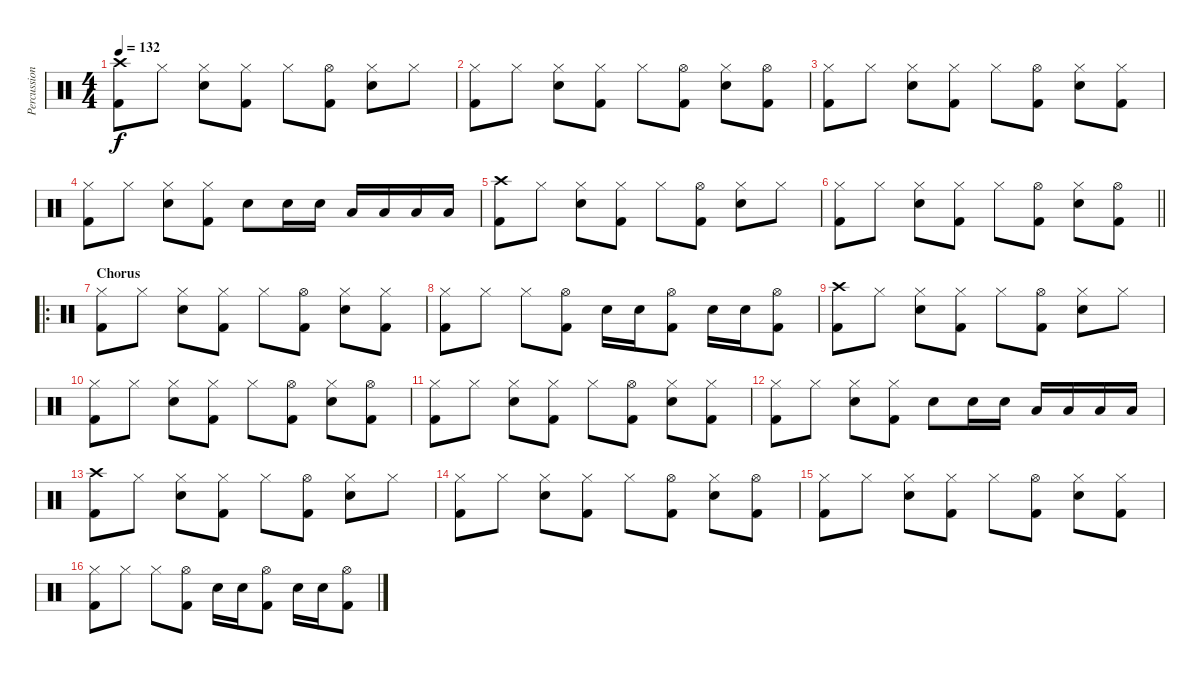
\track ("Percussioni" "Percussion") {instrument percussion}
\staff {score}
\articulation defaults
\ts (4 4)
\tempo 132
\clef neutral
\ks c
("Crash high (hit)" "Kick (hit) 2").8{dy f} "Hi-Hat (closed)".8 ("Hi-Hat (closed)" "Snare (hit) 2").8 ("Hi-Hat (closed)" "Kick (hit) 2").8 "Hi-Hat (closed)".8 ("Hi-Hat (open)" "Kick (hit) 2").8 ("Hi-Hat (closed)" "Snare (hit) 2").8 "Hi-Hat (closed)".8 |
("Hi-Hat (closed)" "Kick (hit) 2").8 "Hi-Hat (closed)".8 ("Hi-Hat (closed)" "Snare (hit) 2").8 ("Hi-Hat (closed)" "Kick (hit) 2").8 "Hi-Hat (closed)".8 ("Hi-Hat (open)" "Kick (hit) 2").8 ("Hi-Hat (closed)" "Snare (hit) 2").8 ("Hi-Hat (open)" "Kick (hit) 2").8 |
("Hi-Hat (closed)" "Kick (hit) 2").8 "Hi-Hat (closed)".8 ("Hi-Hat (closed)" "Snare (hit) 2").8 ("Hi-Hat (closed)" "Kick (hit) 2").8 "Hi-Hat (closed)".8 ("Hi-Hat (open)" "Kick (hit) 2").8 ("Hi-Hat (closed)" "Snare (hit) 2").8 ("Hi-Hat (closed)" "Kick (hit) 2").8 |
("Hi-Hat (closed)" "Kick (hit) 2").8 "Hi-Hat (closed)".8 ("Hi-Hat (closed)" "Snare (hit) 2").8 ("Hi-Hat (closed)" "Kick (hit) 2").8 "Snare (hit) 2".8 "Snare (hit) 2".16 "Snare (hit) 2".16 "Low Floor Tom (hit)".16 "Low Floor Tom (hit)".16 "Low Floor Tom (hit)".16 "Low Floor Tom (hit)".16 |
("Crash high (hit)" "Kick (hit) 2").8 "Hi-Hat (closed)".8 ("Hi-Hat (closed)" "Snare (hit) 2").8 ("Hi-Hat (closed)" "Kick (hit) 2").8 "Hi-Hat (closed)".8 ("Hi-Hat (open)" "Kick (hit) 2").8 ("Hi-Hat (closed)" "Snare (hit) 2").8 "Hi-Hat (closed)".8 |
\barLineRight lightlight
("Hi-Hat (closed)" "Kick (hit) 2").8 "Hi-Hat (closed)".8 ("Hi-Hat (closed)" "Snare (hit) 2").8 ("Hi-Hat (closed)" "Kick (hit) 2").8 "Hi-Hat (closed)".8 ("Hi-Hat (open)" "Kick (hit) 2").8 ("Hi-Hat (closed)" "Snare (hit) 2").8 ("Hi-Hat (open)" "Kick (hit) 2").8 |
\ro
\section ("" "Chorus")
("Hi-Hat (closed)" "Kick (hit) 2").8 "Hi-Hat (closed)".8 ("Hi-Hat (closed)" "Snare (hit) 2").8 ("Hi-Hat (closed)" "Kick (hit) 2").8 "Hi-Hat (closed)".8 ("Hi-Hat (open)" "Kick (hit) 2").8 ("Hi-Hat (closed)" "Snare (hit) 2").8 ("Hi-Hat (closed)" "Kick (hit) 2").8 |
("Hi-Hat (closed)" "Kick (hit) 2").8 "Hi-Hat (closed)".8 "Hi-Hat (closed)".8 ("Hi-Hat (open)" "Kick (hit) 2").8 "Snare (hit) 2".16 "Snare (hit) 2".16 ("Hi-Hat (open)" "Kick (hit) 2").8 "Snare (hit) 2".16 "Snare (hit) 2".16 ("Hi-Hat (open)" "Kick (hit) 2").8 |
("Crash high (hit)" "Kick (hit) 2").8 "Hi-Hat (closed)".8 ("Hi-Hat (closed)" "Snare (hit) 2").8 ("Hi-Hat (closed)" "Kick (hit) 2").8 "Hi-Hat (closed)".8 ("Hi-Hat (open)" "Kick (hit) 2").8 ("Hi-Hat (closed)" "Snare (hit) 2").8 "Hi-Hat (closed)".8 |
("Hi-Hat (closed)" "Kick (hit) 2").8 "Hi-Hat (closed)".8 ("Hi-Hat (closed)" "Snare (hit) 2").8 ("Hi-Hat (closed)" "Kick (hit) 2").8 "Hi-Hat (closed)".8 ("Hi-Hat (open)" "Kick (hit) 2").8 ("Hi-Hat (closed)" "Snare (hit) 2").8 ("Hi-Hat (open)" "Kick (hit) 2").8 |
("Hi-Hat (closed)" "Kick (hit) 2").8 "Hi-Hat (closed)".8 ("Hi-Hat (closed)" "Snare (hit) 2").8 ("Hi-Hat (closed)" "Kick (hit) 2").8 "Hi-Hat (closed)".8 ("Hi-Hat (open)" "Kick (hit) 2").8 ("Hi-Hat (closed)" "Snare (hit) 2").8 ("Hi-Hat (closed)" "Kick (hit) 2").8 |
("Hi-Hat (closed)" "Kick (hit) 2").8 "Hi-Hat (closed)".8 ("Hi-Hat (closed)" "Snare (hit) 2").8 ("Hi-Hat (closed)" "Kick (hit) 2").8 "Snare (hit) 2".8 "Snare (hit) 2".16 "Snare (hit) 2".16 "Low Floor Tom (hit)".16 "Low Floor Tom (hit)".16 "Low Floor Tom (hit)".16 "Low Floor Tom (hit)".16 |
("Crash high (hit)" "Kick (hit) 2").8 "Hi-Hat (closed)".8 ("Hi-Hat (closed)" "Snare (hit) 2").8 ("Hi-Hat (closed)" "Kick (hit) 2").8 "Hi-Hat (closed)".8 ("Hi-Hat (open)" "Kick (hit) 2").8 ("Hi-Hat (closed)" "Snare (hit) 2").8 "Hi-Hat (closed)".8 |
("Hi-Hat (closed)" "Kick (hit) 2").8 "Hi-Hat (closed)".8 ("Hi-Hat (closed)" "Snare (hit) 2").8 ("Hi-Hat (closed)" "Kick (hit) 2").8 "Hi-Hat (closed)".8 ("Hi-Hat (open)" "Kick (hit) 2").8 ("Hi-Hat (closed)" "Snare (hit) 2").8 ("Hi-Hat (open)" "Kick (hit) 2").8 |
("Hi-Hat (closed)" "Kick (hit) 2").8 "Hi-Hat (closed)".8 ("Hi-Hat (closed)" "Snare (hit) 2").8 ("Hi-Hat (closed)" "Kick (hit) 2").8 "Hi-Hat (closed)".8 ("Hi-Hat (open)" "Kick (hit) 2").8 ("Hi-Hat (closed)" "Snare (hit) 2").8 ("Hi-Hat (closed)" "Kick (hit) 2").8 |
("Hi-Hat (closed)" "Kick (hit) 2").8 "Hi-Hat (closed)".8 "Hi-Hat (closed)".8 ("Hi-Hat (open)" "Kick (hit) 2").8 "Snare (hit) 2".16 "Snare (hit) 2".16 ("Hi-Hat (open)" "Kick (hit) 2").8 "Snare (hit) 2".16 "Snare (hit) 2".16 ("Hi-Hat (open)" "Kick (hit) 2").8
